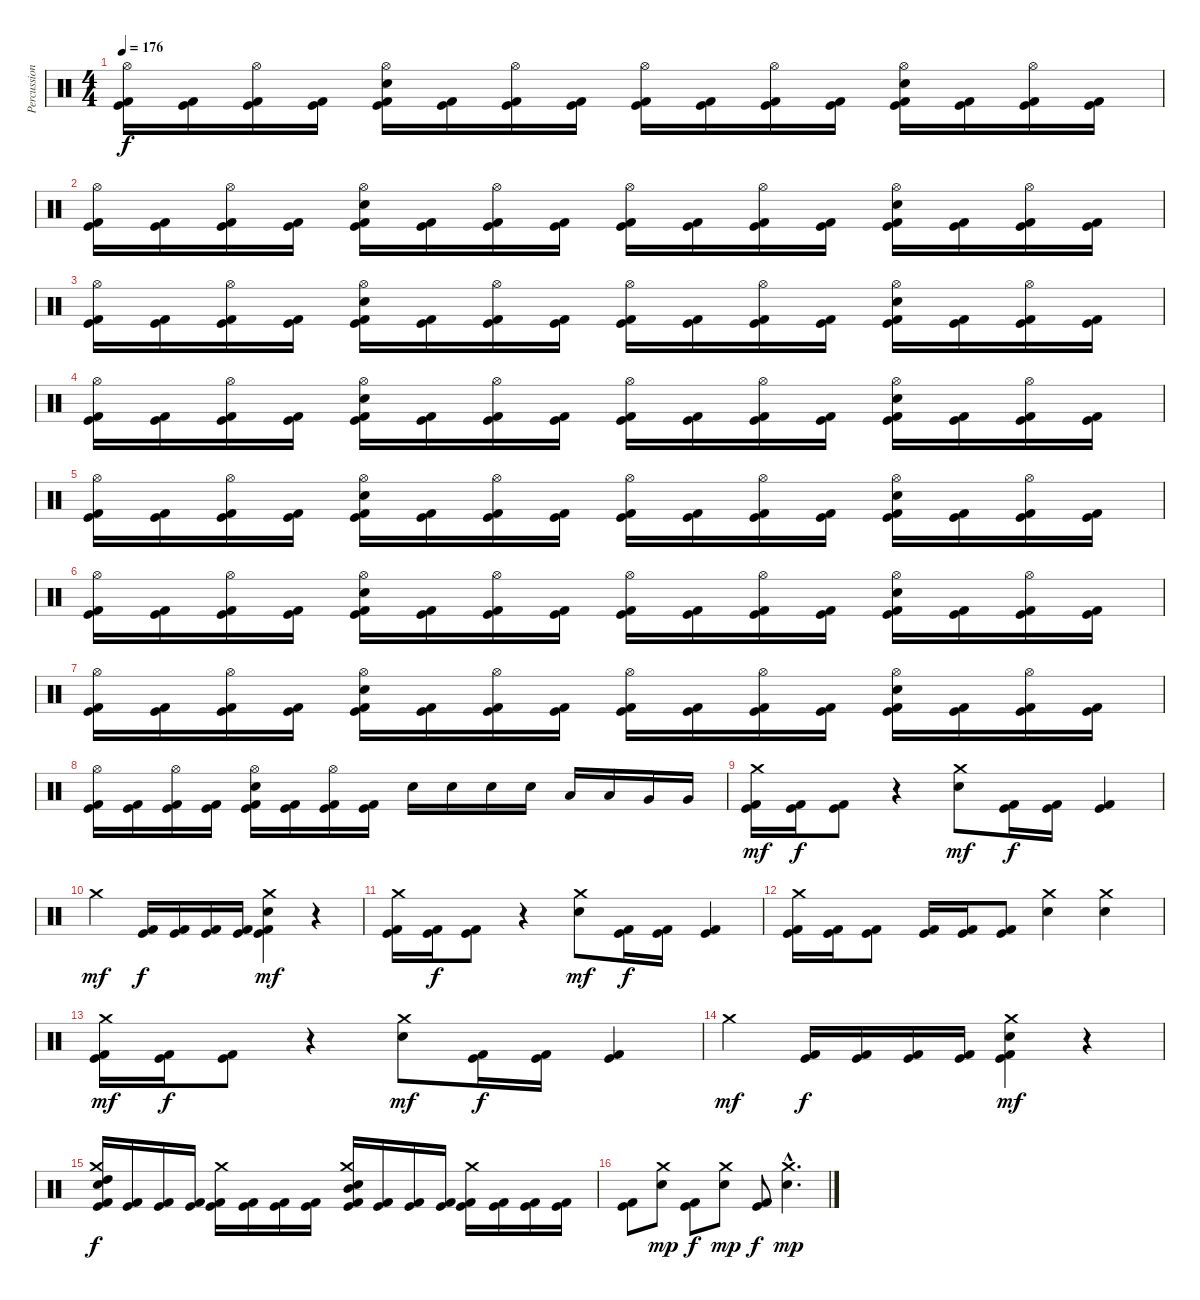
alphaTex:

\track ("Percussions" "Percussion") {instrument percussion}
\staff {score}
\articulation defaults
\ts (4 4)
\tempo 176
\clef neutral
\ks c
("Hi-Hat (open)" "Kick (hit)" "Kick (hit) 2").16{dy f} ("Kick (hit)" "Kick (hit) 2").16 ("Hi-Hat (open)" "Kick (hit)" "Kick (hit) 2").16 ("Kick (hit)" "Kick (hit) 2").16 ("Hi-Hat (open)" "Electric Snare (hit)" "Kick (hit)" "Kick (hit) 2").16 ("Kick (hit)" "Kick (hit) 2").16 ("Hi-Hat (open)" "Kick (hit)" "Kick (hit) 2").16 ("Kick (hit)" "Kick (hit) 2").16 ("Hi-Hat (open)" "Kick (hit)" "Kick (hit) 2").16 ("Kick (hit)" "Kick (hit) 2").16 ("Hi-Hat (open)" "Kick (hit)" "Kick (hit) 2").16 ("Kick (hit)" "Kick (hit) 2").16 ("Hi-Hat (open)" "Electric Snare (hit)" "Kick (hit)" "Kick (hit) 2").16 ("Kick (hit)" "Kick (hit) 2").16 ("Hi-Hat (open)" "Kick (hit)" "Kick (hit) 2").16 ("Kick (hit)" "Kick (hit) 2").16 |
("Hi-Hat (open)" "Kick (hit)" "Kick (hit) 2").16 ("Kick (hit)" "Kick (hit) 2").16 ("Hi-Hat (open)" "Kick (hit)" "Kick (hit) 2").16 ("Kick (hit)" "Kick (hit) 2").16 ("Hi-Hat (open)" "Electric Snare (hit)" "Kick (hit)" "Kick (hit) 2").16 ("Kick (hit)" "Kick (hit) 2").16 ("Hi-Hat (open)" "Kick (hit)" "Kick (hit) 2").16 ("Kick (hit)" "Kick (hit) 2").16 ("Hi-Hat (open)" "Kick (hit)" "Kick (hit) 2").16 ("Kick (hit)" "Kick (hit) 2").16 ("Hi-Hat (open)" "Kick (hit)" "Kick (hit) 2").16 ("Kick (hit)" "Kick (hit) 2").16 ("Hi-Hat (open)" "Electric Snare (hit)" "Kick (hit)" "Kick (hit) 2").16 ("Kick (hit)" "Kick (hit) 2").16 ("Hi-Hat (open)" "Kick (hit)" "Kick (hit) 2").16 ("Kick (hit)" "Kick (hit) 2").16 |
("Hi-Hat (open)" "Kick (hit)" "Kick (hit) 2").16 ("Kick (hit)" "Kick (hit) 2").16 ("Hi-Hat (open)" "Kick (hit)" "Kick (hit) 2").16 ("Kick (hit)" "Kick (hit) 2").16 ("Hi-Hat (open)" "Electric Snare (hit)" "Kick (hit)" "Kick (hit) 2").16 ("Kick (hit)" "Kick (hit) 2").16 ("Hi-Hat (open)" "Kick (hit)" "Kick (hit) 2").16 ("Kick (hit)" "Kick (hit) 2").16 ("Hi-Hat (open)" "Kick (hit)" "Kick (hit) 2").16 ("Kick (hit)" "Kick (hit) 2").16 ("Hi-Hat (open)" "Kick (hit)" "Kick (hit) 2").16 ("Kick (hit)" "Kick (hit) 2").16 ("Hi-Hat (open)" "Electric Snare (hit)" "Kick (hit)" "Kick (hit) 2").16 ("Kick (hit)" "Kick (hit) 2").16 ("Hi-Hat (open)" "Kick (hit)" "Kick (hit) 2").16 ("Kick (hit)" "Kick (hit) 2").16 |
("Hi-Hat (open)" "Kick (hit)" "Kick (hit) 2").16 ("Kick (hit)" "Kick (hit) 2").16 ("Hi-Hat (open)" "Kick (hit)" "Kick (hit) 2").16 ("Kick (hit)" "Kick (hit) 2").16 ("Hi-Hat (open)" "Electric Snare (hit)" "Kick (hit)" "Kick (hit) 2").16 ("Kick (hit)" "Kick (hit) 2").16 ("Hi-Hat (open)" "Kick (hit)" "Kick (hit) 2").16 ("Kick (hit)" "Kick (hit) 2").16 ("Hi-Hat (open)" "Kick (hit)" "Kick (hit) 2").16 ("Kick (hit)" "Kick (hit) 2").16 ("Hi-Hat (open)" "Kick (hit)" "Kick (hit) 2").16 ("Kick (hit)" "Kick (hit) 2").16 ("Hi-Hat (open)" "Electric Snare (hit)" "Kick (hit)" "Kick (hit) 2").16 ("Kick (hit)" "Kick (hit) 2").16 ("Hi-Hat (open)" "Kick (hit)" "Kick (hit) 2").16 ("Kick (hit)" "Kick (hit) 2").16 |
("Hi-Hat (open)" "Kick (hit)" "Kick (hit) 2").16 ("Kick (hit)" "Kick (hit) 2").16 ("Hi-Hat (open)" "Kick (hit)" "Kick (hit) 2").16 ("Kick (hit)" "Kick (hit) 2").16 ("Hi-Hat (open)" "Electric Snare (hit)" "Kick (hit)" "Kick (hit) 2").16 ("Kick (hit)" "Kick (hit) 2").16 ("Hi-Hat (open)" "Kick (hit)" "Kick (hit) 2").16 ("Kick (hit)" "Kick (hit) 2").16 ("Hi-Hat (open)" "Kick (hit)" "Kick (hit) 2").16 ("Kick (hit)" "Kick (hit) 2").16 ("Hi-Hat (open)" "Kick (hit)" "Kick (hit) 2").16 ("Kick (hit)" "Kick (hit) 2").16 ("Hi-Hat (open)" "Electric Snare (hit)" "Kick (hit)" "Kick (hit) 2").16 ("Kick (hit)" "Kick (hit) 2").16 ("Hi-Hat (open)" "Kick (hit)" "Kick (hit) 2").16 ("Kick (hit)" "Kick (hit) 2").16 |
("Hi-Hat (open)" "Kick (hit)" "Kick (hit) 2").16 ("Kick (hit)" "Kick (hit) 2").16 ("Hi-Hat (open)" "Kick (hit)" "Kick (hit) 2").16 ("Kick (hit)" "Kick (hit) 2").16 ("Hi-Hat (open)" "Electric Snare (hit)" "Kick (hit)" "Kick (hit) 2").16 ("Kick (hit)" "Kick (hit) 2").16 ("Hi-Hat (open)" "Kick (hit)" "Kick (hit) 2").16 ("Kick (hit)" "Kick (hit) 2").16 ("Hi-Hat (open)" "Kick (hit)" "Kick (hit) 2").16 ("Kick (hit)" "Kick (hit) 2").16 ("Hi-Hat (open)" "Kick (hit)" "Kick (hit) 2").16 ("Kick (hit)" "Kick (hit) 2").16 ("Hi-Hat (open)" "Electric Snare (hit)" "Kick (hit)" "Kick (hit) 2").16 ("Kick (hit)" "Kick (hit) 2").16 ("Hi-Hat (open)" "Kick (hit)" "Kick (hit) 2").16 ("Kick (hit)" "Kick (hit) 2").16 |
("Hi-Hat (open)" "Kick (hit)" "Kick (hit) 2").16 ("Kick (hit)" "Kick (hit) 2").16 ("Hi-Hat (open)" "Kick (hit)" "Kick (hit) 2").16 ("Kick (hit)" "Kick (hit) 2").16 ("Hi-Hat (open)" "Electric Snare (hit)" "Kick (hit)" "Kick (hit) 2").16 ("Kick (hit)" "Kick (hit) 2").16 ("Hi-Hat (open)" "Kick (hit)" "Kick (hit) 2").16 ("Kick (hit)" "Kick (hit) 2").16 ("Hi-Hat (open)" "Kick (hit)" "Kick (hit) 2").16 ("Kick (hit)" "Kick (hit) 2").16 ("Hi-Hat (open)" "Kick (hit)" "Kick (hit) 2").16 ("Kick (hit)" "Kick (hit) 2").16 ("Hi-Hat (open)" "Electric Snare (hit)" "Kick (hit)" "Kick (hit) 2").16 ("Kick (hit)" "Kick (hit) 2").16 ("Hi-Hat (open)" "Kick (hit)" "Kick (hit) 2").16 ("Kick (hit)" "Kick (hit) 2").16 |
("Hi-Hat (open)" "Kick (hit)" "Kick (hit) 2").16 ("Kick (hit)" "Kick (hit) 2").16 ("Hi-Hat (open)" "Kick (hit)" "Kick (hit) 2").16 ("Kick (hit)" "Kick (hit) 2").16 ("Hi-Hat (open)" "Electric Snare (hit)" "Kick (hit)" "Kick (hit) 2").16 ("Kick (hit)" "Kick (hit) 2").16 ("Hi-Hat (open)" "Kick (hit)" "Kick (hit) 2").16 ("Kick (hit)" "Kick (hit) 2").16 "Electric Snare (hit)".16 "Electric Snare (hit)".16 "Electric Snare (hit)".16 "Electric Snare (hit)".16 "Low Tom (hit)".16 "Low Tom (hit)".16 "Very Low Tom (hit)".16 "Very Low Tom (hit)".16 |
("Crash medium (hit)" "Kick (hit)" "Kick (hit) 2").16{dy mf} ("Kick (hit)" "Kick (hit) 2").16{dy f} ("Kick (hit)" "Kick (hit) 2").8 r.4 ("Crash medium (hit)" "Electric Snare (hit)").8{dy mf} ("Kick (hit)" "Kick (hit) 2").16{dy f} ("Kick (hit)" "Kick (hit) 2").16 ("Kick (hit)" "Kick (hit) 2").4 |
"Crash medium (hit)".4{dy mf} ("Kick (hit)" "Kick (hit) 2").16{dy f} ("Kick (hit)" "Kick (hit) 2").16 ("Kick (hit)" "Kick (hit) 2").16 ("Kick (hit)" "Kick (hit) 2").16 ("Crash medium (hit)" "Electric Snare (hit)" "Kick (hit)" "Kick (hit) 2").4{dy mf} r.4 |
("Crash medium (hit)" "Kick (hit)" "Kick (hit) 2").16 ("Kick (hit)" "Kick (hit) 2").16{dy f} ("Kick (hit)" "Kick (hit) 2").8 r.4 ("Crash medium (hit)" "Electric Snare (hit)").8{dy mf} ("Kick (hit)" "Kick (hit) 2").16{dy f} ("Kick (hit)" "Kick (hit) 2").16 ("Kick (hit)" "Kick (hit) 2").4 |
("Crash medium (hit)" "Kick (hit)" "Kick (hit) 2").16 ("Kick (hit)" "Kick (hit) 2").16 ("Kick (hit)" "Kick (hit) 2").8 ("Kick (hit)" "Kick (hit) 2").16 ("Kick (hit)" "Kick (hit) 2").16 ("Kick (hit)" "Kick (hit) 2").8 ("Crash medium (hit)" "Electric Snare (hit)").4 ("Crash medium (hit)" "Electric Snare (hit)").4 |
("Crash medium (hit)" "Kick (hit)" "Kick (hit) 2").16{dy mf} ("Kick (hit)" "Kick (hit) 2").16{dy f} ("Kick (hit)" "Kick (hit) 2").8 r.4 ("Crash medium (hit)" "Electric Snare (hit)").8{dy mf} ("Kick (hit)" "Kick (hit) 2").16{dy f} ("Kick (hit)" "Kick (hit) 2").16 ("Kick (hit)" "Kick (hit) 2").4 |
"Crash medium (hit)".4{dy mf} ("Kick (hit)" "Kick (hit) 2").16{dy f} ("Kick (hit)" "Kick (hit) 2").16 ("Kick (hit)" "Kick (hit) 2").16 ("Kick (hit)" "Kick (hit) 2").16 ("Crash medium (hit)" "Electric Snare (hit)" "Kick (hit)" "Kick (hit) 2").4{dy mf} r.4 |
("Crash medium (hit)" "Electric Snare (hit)" "High Tom (hit)" "Kick (hit)" "Kick (hit) 2").16{dy f} ("Kick (hit)" "Kick (hit) 2").16 ("Kick (hit)" "Kick (hit) 2").16 ("Kick (hit)" "Kick (hit) 2").16 ("Crash medium (hit)" "Kick (hit)" "Kick (hit) 2").16 ("Kick (hit)" "Kick (hit) 2").16 ("Kick (hit)" "Kick (hit) 2").16 ("Kick (hit)" "Kick (hit) 2").16 ("Crash medium (hit)" "Electric Snare (hit)" "Mid Tom (hit)" "Kick (hit)" "Kick (hit) 2").16 ("Kick (hit)" "Kick (hit) 2").16 ("Kick (hit)" "Kick (hit) 2").16 ("Kick (hit)" "Kick (hit) 2").16 ("Crash medium (hit)" "Kick (hit)" "Kick (hit) 2").16 ("Kick (hit)" "Kick (hit) 2").16 ("Kick (hit)" "Kick (hit) 2").16 ("Kick (hit)" "Kick (hit) 2").16 |
("Kick (hit)" "Kick (hit) 2").8 ("Crash medium (hit)" "Electric Snare (hit)").8{dy mp} ("Kick (hit)" "Kick (hit) 2").8{dy f} ("Crash medium (hit)" "Electric Snare (hit)").8{dy mp} ("Kick (hit)" "Kick (hit) 2").8{dy f} ("Crash medium (hit)"{hac} "Electric Snare (hit)"{hac}).4{d dy mp}
